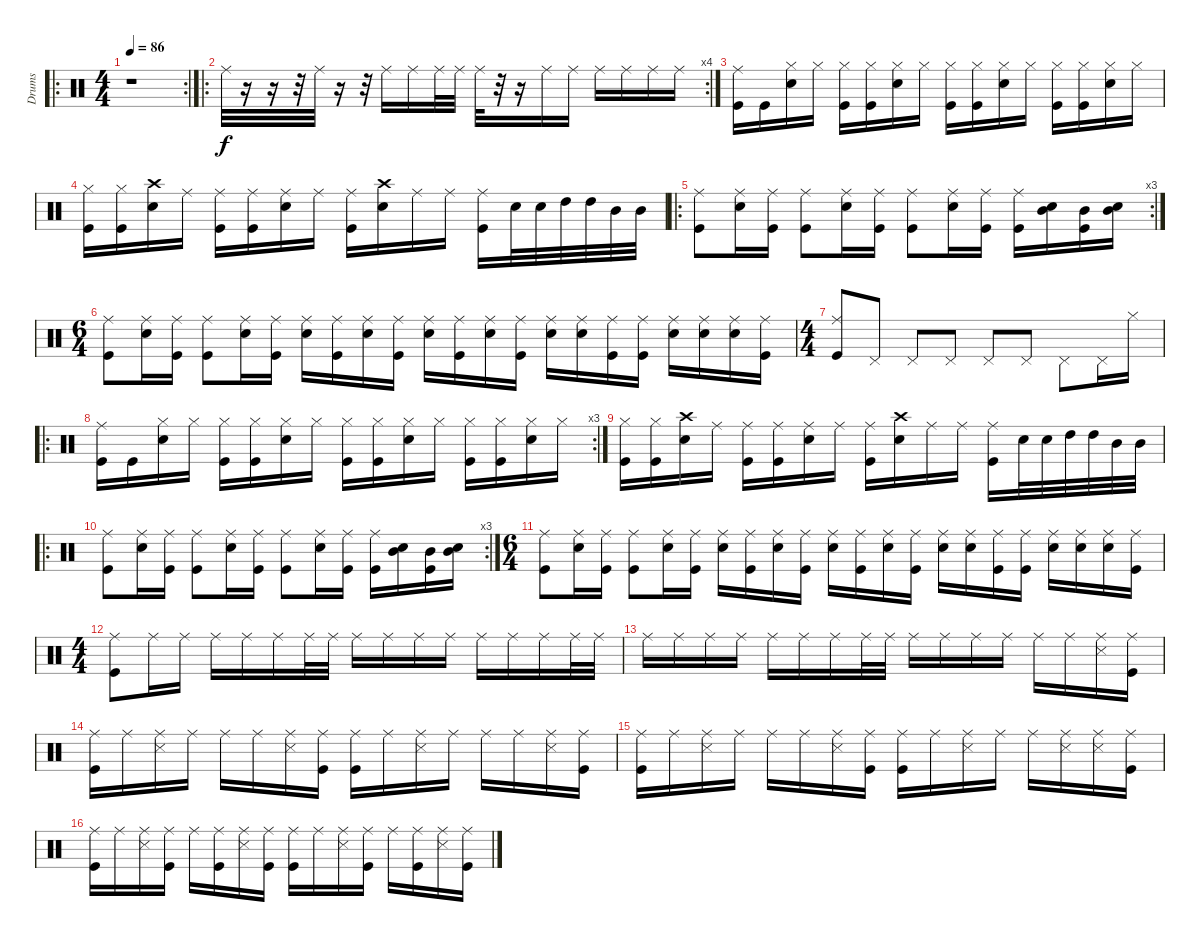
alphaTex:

\track ("Drums" "Drums") {instrument percussion}
\staff {score}
\articulation defaults
\ro
\rc 2
\ts (4 4)
\tempo 86
\clef neutral
\ks c
r.1{dy f} |
\ro
\rc 4 "Ride (middle)".32
r.16 r.16 r.32 "Ride (middle)".32 r.16 r.32 "Ride (middle)".16 "Ride (middle)".16 "Ride (middle)".32 "Ride (middle)".32 "Ride (middle)".32 r.32 r.16 "Ride (middle)".16 "Ride (middle)".16 "Ride (middle)".16 "Ride (middle)".16 "Ride (middle)".16 "Ride (middle)".16 |
("Ride (middle)" "Kick (hit)").16 "Kick (hit)".16 ("Hi-Hat (closed)" "Snare (hit) 2").16 "Hi-Hat (closed)".16 ("Hi-Hat (closed)" "Kick (hit)").16 ("Hi-Hat (closed)" "Kick (hit)").16 ("Hi-Hat (closed)" "Snare (hit) 2").16 "Hi-Hat (closed)".16 ("Hi-Hat (closed)" "Kick (hit)").16 ("Hi-Hat (closed)" "Kick (hit)").16 ("Hi-Hat (closed)" "Snare (hit) 2").16 "Hi-Hat (closed)".16 ("Hi-Hat (closed)" "Kick (hit)").16 ("Hi-Hat (closed)" "Kick (hit)").16 ("Hi-Hat (closed)" "Snare (hit) 2").16 "Hi-Hat (closed)".16 |
("Hi-Hat (closed)" "Kick (hit)").16 ("Hi-Hat (closed)" "Kick (hit)").16 ("Crash high (hit)" "Snare (hit) 2").16 "Ride (middle)".16 ("Ride (middle)" "Kick (hit)").16 ("Ride (middle)" "Kick (hit)").16 ("Ride (middle)" "Snare (hit) 2").16 "Ride (middle)".16 ("Ride (middle)" "Kick (hit)").16 ("Crash high (hit)" "Snare (hit) 2").16 "Ride (middle)".16 "Ride (middle)".16 ("Ride (middle)" "Kick (hit)").16 "Snare (hit) 2".32 "Snare (hit) 2".32 "High Tom (hit)".32 "High Tom (hit)".32 "Mid Tom (hit)".32 "Mid Tom (hit)".32 |
\ro
\rc 3
("Ride (middle)" "Kick (hit)").8 ("Ride (middle)" "Snare (hit) 2").16 ("Ride (middle)" "Kick (hit)").16 ("Ride (middle)" "Kick (hit)").8 ("Ride (middle)" "Snare (hit) 2").16 ("Ride (middle)" "Kick (hit)").16 ("Ride (middle)" "Kick (hit)").8 ("Ride (middle)" "Snare (hit) 2").16 ("Ride (middle)" "Kick (hit)").16 ("Ride (middle)" "Kick (hit)").16 ("Snare (hit) 2" "Mid Tom (hit)").16 ("Mid Tom (hit)" "Kick (hit)").16 ("Snare (hit) 2" "Mid Tom (hit)").16 |
\ts (6 4)
("Ride (middle)" "Kick (hit)").8 ("Ride (middle)" "Snare (hit) 2").16 ("Ride (middle)" "Kick (hit)").16 ("Ride (middle)" "Kick (hit)").8 ("Ride (middle)" "Snare (hit) 2").16 ("Ride (middle)" "Kick (hit)").16 ("Ride (middle)" "Snare (hit) 2").16 ("Ride (middle)" "Kick (hit)").16 ("Ride (middle)" "Snare (hit) 2").16 ("Ride (middle)" "Kick (hit)").16 ("Ride (middle)" "Snare (hit) 2").16 ("Ride (middle)" "Kick (hit)").16 ("Ride (middle)" "Snare (hit) 2").16 ("Ride (middle)" "Kick (hit)").16 ("Ride (middle)" "Snare (hit) 2").16 ("Ride (middle)" "Snare (hit) 2").16 ("Ride (middle)" "Kick (hit)").16 ("Ride (middle)" "Kick (hit)").16 ("Ride (middle)" "Snare (hit) 2").16 ("Ride (middle)" "Snare (hit) 2").16 ("Ride (middle)" "Snare (hit) 2").16 ("Ride (middle)" "Kick (hit)").16 |
\ts (4 4)
("Ride (middle)" "Kick (hit)").8 "Pedal Hi-Hat (hit)".8 "Pedal Hi-Hat (hit)".8 "Pedal Hi-Hat (hit)".8 "Pedal Hi-Hat (hit)".8 "Pedal Hi-Hat (hit)".8 "Pedal Hi-Hat (hit)".8 "Pedal Hi-Hat (hit)".16 "Hi-Hat (closed)".16 |
\ro
\rc 3
("Ride (middle)" "Kick (hit)").16 "Kick (hit)".16 ("Hi-Hat (closed)" "Snare (hit) 2").16 "Hi-Hat (closed)".16 ("Hi-Hat (closed)" "Kick (hit)").16 ("Hi-Hat (closed)" "Kick (hit)").16 ("Hi-Hat (closed)" "Snare (hit) 2").16 "Hi-Hat (closed)".16 ("Hi-Hat (closed)" "Kick (hit)").16 ("Hi-Hat (closed)" "Kick (hit)").16 ("Hi-Hat (closed)" "Snare (hit) 2").16 "Hi-Hat (closed)".16 ("Hi-Hat (closed)" "Kick (hit)").16 ("Hi-Hat (closed)" "Kick (hit)").16 ("Hi-Hat (closed)" "Snare (hit) 2").16 "Hi-Hat (closed)".16 |
("Hi-Hat (closed)" "Kick (hit)").16 ("Hi-Hat (closed)" "Kick (hit)").16 ("Crash high (hit)" "Snare (hit) 2").16 "Ride (middle)".16 ("Ride (middle)" "Kick (hit)").16 ("Ride (middle)" "Kick (hit)").16 ("Ride (middle)" "Snare (hit) 2").16 "Ride (middle)".16 ("Ride (middle)" "Kick (hit)").16 ("Crash high (hit)" "Snare (hit) 2").16 "Ride (middle)".16 "Ride (middle)".16 ("Ride (middle)" "Kick (hit)").16 "Snare (hit) 2".32 "Snare (hit) 2".32 "High Tom (hit)".32 "High Tom (hit)".32 "Mid Tom (hit)".32 "Mid Tom (hit)".32 |
\ro
\rc 3
("Ride (middle)" "Kick (hit)").8 ("Ride (middle)" "Snare (hit) 2").16 ("Ride (middle)" "Kick (hit)").16 ("Ride (middle)" "Kick (hit)").8 ("Ride (middle)" "Snare (hit) 2").16 ("Ride (middle)" "Kick (hit)").16 ("Ride (middle)" "Kick (hit)").8 ("Ride (middle)" "Snare (hit) 2").16 ("Ride (middle)" "Kick (hit)").16 ("Ride (middle)" "Kick (hit)").16 ("Snare (hit) 2" "Mid Tom (hit)").16 ("Mid Tom (hit)" "Kick (hit)").16 ("Snare (hit) 2" "Mid Tom (hit)").16 |
\ts (6 4)
("Ride (middle)" "Kick (hit)").8 ("Ride (middle)" "Snare (hit) 2").16 ("Ride (middle)" "Kick (hit)").16 ("Ride (middle)" "Kick (hit)").8 ("Ride (middle)" "Snare (hit) 2").16 ("Ride (middle)" "Kick (hit)").16 ("Ride (middle)" "Snare (hit) 2").16 ("Ride (middle)" "Kick (hit)").16 ("Ride (middle)" "Snare (hit) 2").16 ("Ride (middle)" "Kick (hit)").16 ("Ride (middle)" "Snare (hit) 2").16 ("Ride (middle)" "Kick (hit)").16 ("Ride (middle)" "Snare (hit) 2").16 ("Ride (middle)" "Kick (hit)").16 ("Ride (middle)" "Snare (hit) 2").16 ("Ride (middle)" "Snare (hit) 2").16 ("Ride (middle)" "Kick (hit)").16 ("Ride (middle)" "Kick (hit)").16 ("Ride (middle)" "Snare (hit) 2").16 ("Ride (middle)" "Snare (hit) 2").16 ("Ride (middle)" "Snare (hit) 2").16 ("Ride (middle)" "Kick (hit)").16 |
\ts (4 4)
("Ride (middle)" "Kick (hit)").8 "Ride (middle)".16 "Ride (middle)".16 "Ride (middle)".16 "Ride (middle)".16 "Ride (middle)".16 "Ride (middle)".32 "Ride (middle)".32 "Ride (middle)".16 "Ride (middle)".16 "Ride (middle)".16 "Ride (middle)".16 "Ride (middle)".16 "Ride (middle)".16 "Ride (middle)".16 "Ride (middle)".32 "Ride (middle)".32 |
"Ride (middle)".16 "Ride (middle)".16 "Ride (middle)".16 "Ride (middle)".16 "Ride (middle)".16 "Ride (middle)".16 "Ride (middle)".16 "Ride (middle)".32 "Ride (middle)".32 "Ride (middle)".16 "Ride (middle)".16 "Ride (middle)".16 "Ride (middle)".16 "Ride (middle)".16 "Ride (middle)".16 ("Ride (middle)" "Snare (side stick) 3").16 ("Ride (middle)" "Kick (hit)").16 |
("Ride (middle)" "Kick (hit)").16 "Ride (middle)".16 ("Ride (middle)" "Snare (side stick) 3").16 "Ride (middle)".16 "Ride (middle)".16 "Ride (middle)".16 ("Ride (middle)" "Snare (side stick) 3").16 ("Ride (middle)" "Kick (hit)").16 ("Ride (middle)" "Kick (hit)").16 "Ride (middle)".16 ("Ride (middle)" "Snare (side stick) 3").16 "Ride (middle)".16 "Ride (middle)".16 "Ride (middle)".16 ("Ride (middle)" "Snare (side stick) 3").16 ("Ride (middle)" "Kick (hit)").16 |
("Ride (middle)" "Kick (hit)").16 "Ride (middle)".16 ("Ride (middle)" "Snare (side stick) 3").16 "Ride (middle)".16 "Ride (middle)".16 "Ride (middle)".16 ("Ride (middle)" "Snare (side stick) 3").16 ("Ride (middle)" "Kick (hit)").16 ("Ride (middle)" "Kick (hit)").16 "Ride (middle)".16 ("Ride (middle)" "Snare (side stick) 3").16 "Ride (middle)".16 "Ride (middle)".16 ("Ride (middle)" "Snare (side stick) 3").16 ("Ride (middle)" "Snare (side stick) 3").16 ("Ride (middle)" "Kick (hit)").16 |
("Ride (middle)" "Kick (hit)").16 "Ride (middle)".16 ("Ride (middle)" "Snare (side stick) 3").16 ("Ride (middle)" "Kick (hit)").16 "Ride (middle)".16 ("Ride (middle)" "Kick (hit)").16 ("Ride (middle)" "Snare (side stick) 3").16 ("Ride (middle)" "Kick (hit)").16 ("Ride (middle)" "Kick (hit)").16 "Ride (middle)".16 ("Ride (middle)" "Snare (side stick) 3").16 ("Ride (middle)" "Kick (hit)").16 "Ride (middle)".16 ("Ride (middle)" "Kick (hit)").16 ("Ride (middle)" "Snare (side stick) 3").16 ("Ride (middle)" "Kick (hit)").16
